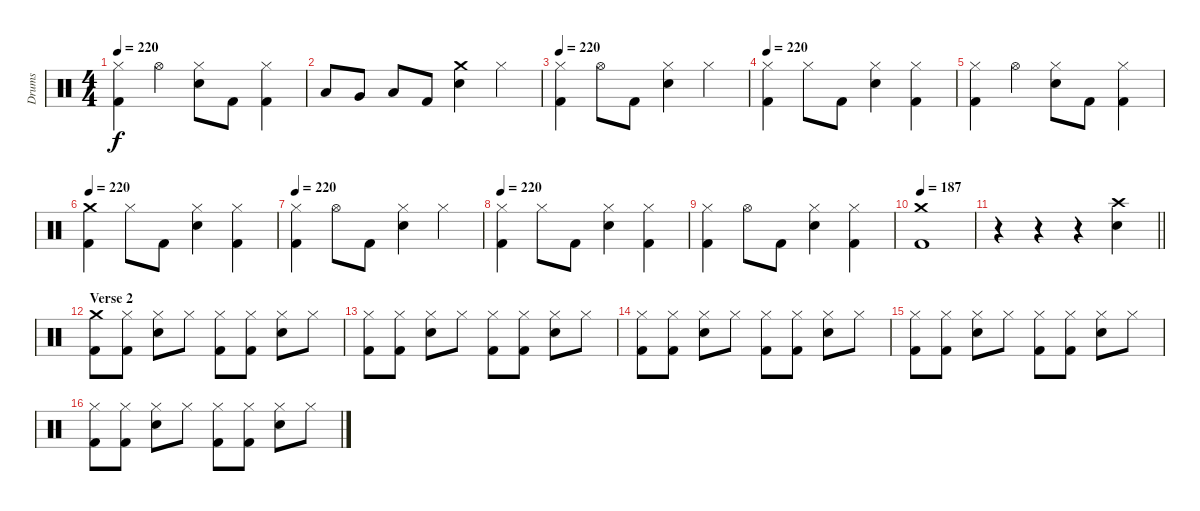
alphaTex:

\track ("Drums" "Drums") {instrument percussion}
\staff {score}
\articulation defaults
\ts (4 4)
\tempo 220
\clef neutral
\ks c
("Hi-Hat (closed)" "Kick (hit) 2").4{dy f} "Hi-Hat (open)".4 ("Hi-Hat (closed)" "Electric Snare (hit)").8 "Kick (hit) 2".8 ("Hi-Hat (closed)" "Kick (hit) 2").4 |
"Low Tom (hit)".8 "Very Low Tom (hit)".8 "Low Floor Tom (hit)".8 "Kick (hit) 2".8 ("Crash medium (hit)" "Electric Snare (hit)").4 "Hi-Hat (closed)".4 |
\tempo 220
("Hi-Hat (closed)" "Kick (hit) 2").4 "Hi-Hat (open)".8 "Kick (hit) 2".8 ("Hi-Hat (closed)" "Electric Snare (hit)").4 "Hi-Hat (closed)".4 |
\tempo 220
("Hi-Hat (closed)" "Kick (hit) 2").4 "Hi-Hat (closed)".8 "Kick (hit) 2".8 ("Hi-Hat (closed)" "Electric Snare (hit)").4 ("Hi-Hat (closed)" "Kick (hit) 2").4 |
("Hi-Hat (closed)" "Kick (hit) 2").4 "Hi-Hat (open)".4 ("Hi-Hat (closed)" "Electric Snare (hit)").8 "Kick (hit) 2".8 ("Hi-Hat (closed)" "Kick (hit) 2").4 |
\tempo 220
("Crash medium (hit)" "Kick (hit) 2").4 "Hi-Hat (closed)".8 "Kick (hit) 2".8 ("Hi-Hat (closed)" "Electric Snare (hit)").4 ("Hi-Hat (closed)" "Kick (hit) 2").4 |
\tempo 220
("Hi-Hat (closed)" "Kick (hit) 2").4 "Hi-Hat (open)".8 "Kick (hit) 2".8 ("Hi-Hat (closed)" "Electric Snare (hit)").4 "Hi-Hat (closed)".4 |
\tempo 220
("Hi-Hat (closed)" "Kick (hit) 2").4 "Hi-Hat (closed)".8 "Kick (hit) 2".8 ("Hi-Hat (closed)" "Electric Snare (hit)").4 ("Hi-Hat (closed)" "Kick (hit) 2").4 |
("Hi-Hat (closed)" "Kick (hit) 2").4 "Hi-Hat (open)".8 "Kick (hit) 2".8 ("Hi-Hat (closed)" "Electric Snare (hit)").4 ("Hi-Hat (closed)" "Kick (hit) 2").4 |
\tempo 187
("Crash medium (hit)" "Kick (hit) 2").1 |
\barLineRight lightlight
r.4 r.4 r.4 ("Crash high (hit)" "Electric Snare (hit)").4 |
\section ("" "Verse 2")
("Crash medium (hit)" "Kick (hit) 2").8 ("Hi-Hat (closed)" "Kick (hit) 2").8 ("Hi-Hat (closed)" "Electric Snare (hit)").8 "Hi-Hat (closed)".8 ("Hi-Hat (closed)" "Kick (hit) 2").8 ("Hi-Hat (closed)" "Kick (hit) 2").8 ("Hi-Hat (closed)" "Electric Snare (hit)").8 "Hi-Hat (closed)".8 |
("Hi-Hat (closed)" "Kick (hit) 2").8 ("Hi-Hat (closed)" "Kick (hit) 2").8 ("Hi-Hat (closed)" "Electric Snare (hit)").8 "Hi-Hat (closed)".8 ("Hi-Hat (closed)" "Kick (hit) 2").8 ("Hi-Hat (closed)" "Kick (hit) 2").8 ("Hi-Hat (closed)" "Electric Snare (hit)").8 "Hi-Hat (closed)".8 |
("Hi-Hat (closed)" "Kick (hit) 2").8 ("Hi-Hat (closed)" "Kick (hit) 2").8 ("Hi-Hat (closed)" "Electric Snare (hit)").8 "Hi-Hat (closed)".8 ("Hi-Hat (closed)" "Kick (hit) 2").8 ("Hi-Hat (closed)" "Kick (hit) 2").8 ("Hi-Hat (closed)" "Electric Snare (hit)").8 "Hi-Hat (closed)".8 |
("Hi-Hat (closed)" "Kick (hit) 2").8 ("Hi-Hat (closed)" "Kick (hit) 2").8 ("Hi-Hat (closed)" "Electric Snare (hit)").8 "Hi-Hat (closed)".8 ("Hi-Hat (closed)" "Kick (hit) 2").8 ("Hi-Hat (closed)" "Kick (hit) 2").8 ("Hi-Hat (closed)" "Electric Snare (hit)").8 "Hi-Hat (closed)".8 |
("Hi-Hat (closed)" "Kick (hit) 2").8 ("Hi-Hat (closed)" "Kick (hit) 2").8 ("Hi-Hat (closed)" "Electric Snare (hit)").8 "Hi-Hat (closed)".8 ("Hi-Hat (closed)" "Kick (hit) 2").8 ("Hi-Hat (closed)" "Kick (hit) 2").8 ("Hi-Hat (closed)" "Electric Snare (hit)").8 "Hi-Hat (closed)".8
